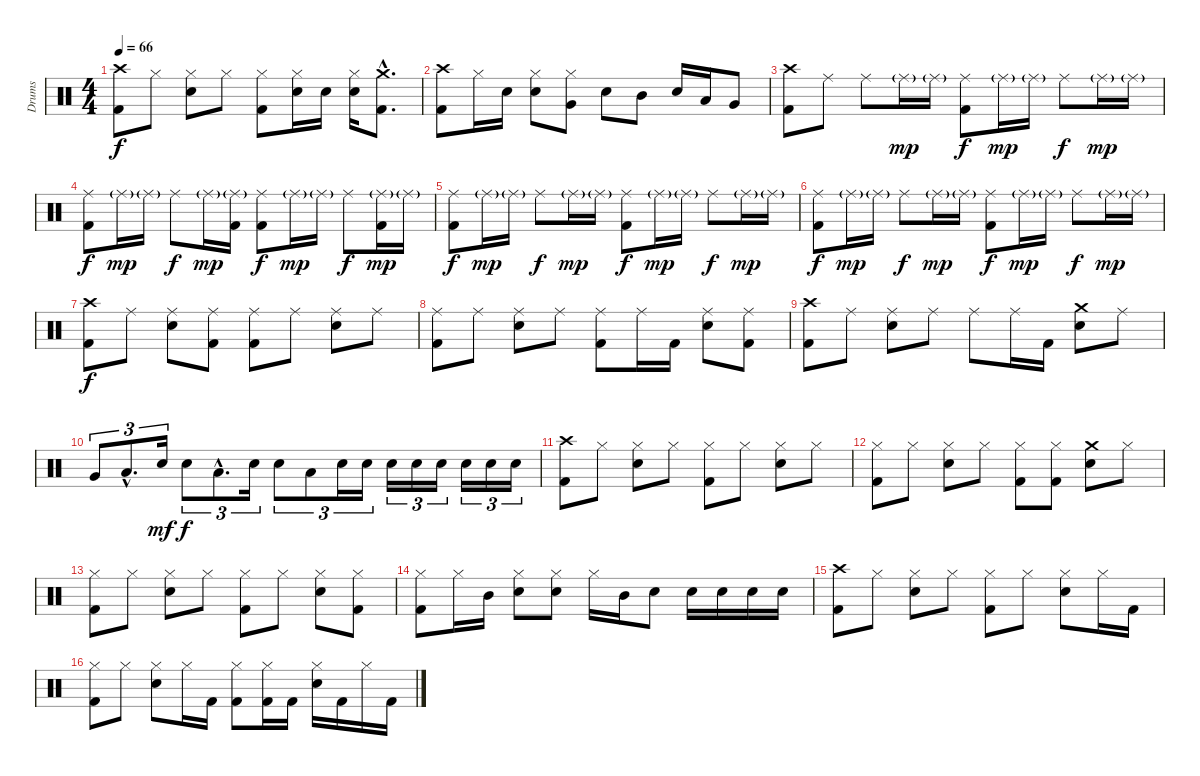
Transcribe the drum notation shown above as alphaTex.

\track ("Drums" "Drums") {instrument percussion}
\staff {score}
\articulation defaults
\ts (4 4)
\tempo 66
\clef neutral
\ks c
("Crash high (hit)" "Kick (hit) 2").8{dy f} "Hi-Hat (closed)".8 ("Hi-Hat (closed)" "Snare (hit) 2").8 "Hi-Hat (closed)".8 ("Hi-Hat (closed)" "Kick (hit) 2").8 ("Hi-Hat (closed)" "Snare (hit) 2").16 "Snare (hit) 2".16 ("Hi-Hat (closed)" "Snare (hit) 2").16 ("Crash medium (hit)"{hac} "Kick (hit) 2"{hac}).8{d} |
("Crash high (hit)" "Kick (hit) 2").8 "Hi-Hat (closed)".16 "Snare (hit) 2".16 ("Hi-Hat (closed)" "Snare (hit) 2").8 ("Hi-Hat (closed)" "Very Low Tom (hit)").8 "Snare (hit) 2".8 "Mid Tom (hit)".8 "Snare (hit) 2".16 "Low Tom (hit)".16 "Very Low Tom (hit)".8 |
("Crash high (hit)" "Kick (hit) 2").8 "Ride (middle)".8 "Ride (middle)".8 "Ride (middle)"{g}.16{dy mp} "Ride (middle)"{g}.16 ("Ride (middle)" "Kick (hit) 2").8{dy f} "Ride (middle)"{g}.16{dy mp} "Ride (middle)"{g}.16 "Ride (middle)".8{dy f} "Ride (middle)"{g}.16{dy mp} "Ride (middle)"{g}.16 |
("Ride (middle)" "Kick (hit) 2").8{dy f} "Ride (middle)"{g}.16{dy mp} "Ride (middle)"{g}.16 "Ride (middle)".8{dy f} "Ride (middle)"{g}.16{dy mp} ("Ride (middle)"{g} "Kick (hit) 2").16 ("Ride (middle)" "Kick (hit) 2").8{dy f} "Ride (middle)"{g}.16{dy mp} "Ride (middle)"{g}.16 "Ride (middle)".8{dy f} ("Ride (middle)"{g} "Kick (hit) 2").16{dy mp} "Ride (middle)"{g}.16 |
("Ride (middle)" "Kick (hit) 2").8{dy f} "Ride (middle)"{g}.16{dy mp} "Ride (middle)"{g}.16 "Ride (middle)".8{dy f} "Ride (middle)"{g}.16{dy mp} "Ride (middle)"{g}.16 ("Ride (middle)" "Kick (hit) 2").8{dy f} "Ride (middle)"{g}.16{dy mp} "Ride (middle)"{g}.16 "Ride (middle)".8{dy f} "Ride (middle)"{g}.16{dy mp} "Ride (middle)"{g}.16 |
("Ride (middle)" "Kick (hit) 2").8{dy f} "Ride (middle)"{g}.16{dy mp} "Ride (middle)"{g}.16 "Ride (middle)".8{dy f} "Ride (middle)"{g}.16{dy mp} "Ride (middle)"{g}.16 ("Ride (middle)" "Kick (hit) 2").8{dy f} "Ride (middle)"{g}.16{dy mp} "Ride (middle)"{g}.16 "Ride (middle)".8{dy f} "Ride (middle)"{g}.16{dy mp} "Ride (middle)"{g}.16 |
("Crash high (hit)" "Kick (hit) 2").8{dy f} "Ride (middle)".8 ("Ride (middle)" "Snare (hit) 2").8 ("Ride (middle)" "Kick (hit) 2").8 ("Ride (middle)" "Kick (hit) 2").8 "Ride (middle)".8 ("Ride (middle)" "Snare (hit) 2").8 "Ride (middle)".8 |
("Ride (middle)" "Kick (hit) 2").8 "Ride (middle)".8 ("Ride (middle)" "Snare (hit) 2").8 "Ride (middle)".8 ("Ride (middle)" "Kick (hit) 2").8 "Ride (middle)".16 "Kick (hit) 2".16 ("Ride (middle)" "Snare (hit) 2").8 ("Ride (middle)" "Kick (hit) 2").8 |
("Crash high (hit)" "Kick (hit) 2").8 "Ride (middle)".8 ("Ride (middle)" "Snare (hit) 2").8 "Ride (middle)".8 "Ride (middle)".8 "Ride (middle)".16 "Kick (hit) 2".16 ("Crash medium (hit)" "Snare (hit) 2").8 "Ride (middle)".8 |
"Very Low Tom (hit)".8{tu (3 2)} "Low Tom (hit)"{hac}.8{d tu (3 2)} "Snare (hit) 2".16{tu (3 2) dy mf} "Snare (hit) 2".8{tu (3 2) dy f} "Low Tom (hit)"{hac}.8{d tu (3 2)} "Snare (hit) 2".16{tu (3 2)} "Snare (hit) 2".8{tu (3 2)} "Low Tom (hit)".8{tu (3 2)} "Snare (hit) 2".16{tu (3 2)} "Snare (hit) 2".16{tu (3 2)} "Snare (hit) 2".16{tu (3 2)} "Snare (hit) 2".16{tu (3 2)} "Snare (hit) 2".16{tu (3 2)} "Snare (hit) 2".16{tu (3 2)} "Snare (hit) 2".16{tu (3 2)} "Snare (hit) 2".16{tu (3 2)} |
("Crash high (hit)" "Kick (hit) 2").8 "Hi-Hat (closed)".8 ("Hi-Hat (closed)" "Snare (hit) 2").8 "Hi-Hat (closed)".8 ("Hi-Hat (closed)" "Kick (hit) 2").8 "Hi-Hat (closed)".8 ("Hi-Hat (closed)" "Snare (hit) 2").8 "Hi-Hat (closed)".8 |
("Hi-Hat (closed)" "Kick (hit) 2").8 "Hi-Hat (closed)".8 ("Hi-Hat (closed)" "Snare (hit) 2").8 "Hi-Hat (closed)".8 ("Hi-Hat (closed)" "Kick (hit) 2").8 ("Hi-Hat (closed)" "Kick (hit) 2").8 ("Crash medium (hit)" "Snare (hit) 2").8 "Hi-Hat (closed)".8 |
("Hi-Hat (closed)" "Kick (hit) 2").8 "Hi-Hat (closed)".8 ("Hi-Hat (closed)" "Snare (hit) 2").8 "Hi-Hat (closed)".8 ("Hi-Hat (closed)" "Kick (hit) 2").8 "Hi-Hat (closed)".8 ("Hi-Hat (closed)" "Snare (hit) 2").8 ("Hi-Hat (closed)" "Kick (hit) 2").8 |
("Hi-Hat (closed)" "Kick (hit) 2").8 "Hi-Hat (closed)".16 "Mid Tom (hit)".16 ("Hi-Hat (closed)" "Snare (hit) 2").8 ("Hi-Hat (closed)" "Snare (hit) 2").8 "Hi-Hat (closed)".16 "Mid Tom (hit)".16 "Snare (hit) 2".8 "Snare (hit) 2".16 "Snare (hit) 2".16 "Snare (hit) 2".16 "Snare (hit) 2".16 |
("Crash high (hit)" "Kick (hit) 2").8 "Hi-Hat (closed)".8 ("Hi-Hat (closed)" "Snare (hit) 2").8 "Hi-Hat (closed)".8 ("Hi-Hat (closed)" "Kick (hit) 2").8 "Hi-Hat (closed)".8 ("Hi-Hat (closed)" "Snare (hit) 2").8 "Hi-Hat (closed)".16 "Kick (hit) 2".16 |
("Hi-Hat (closed)" "Kick (hit) 2").8 "Hi-Hat (closed)".8 ("Hi-Hat (closed)" "Snare (hit) 2").8 "Hi-Hat (closed)".16 "Kick (hit) 2".16 ("Hi-Hat (closed)" "Kick (hit) 2").8 ("Hi-Hat (closed)" "Kick (hit) 2").16 "Kick (hit) 2".16 ("Hi-Hat (closed)" "Snare (hit) 2").16 "Kick (hit) 2".16 "Hi-Hat (closed)".16 "Kick (hit) 2".16
